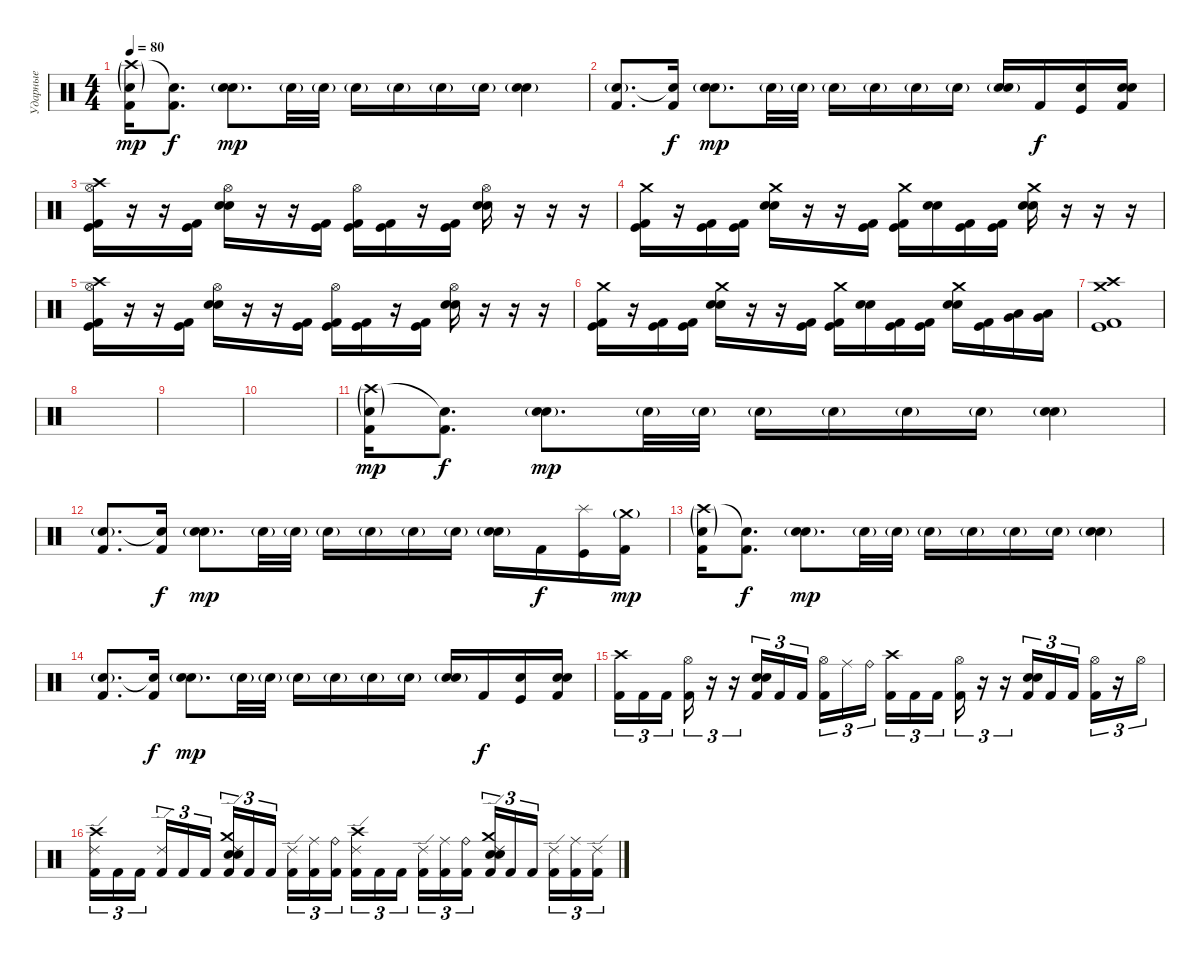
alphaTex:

\track ("Ударные" "Ударные") {instrument percussion}
\staff {score}
\articulation defaults
\ts (4 4)
\tempo 80
\clef neutral
\ks c
("Crash high (hit)"{g} "Snare (hit)"{g} "Kick (hit) 2").16{dy mp} ("Snare (hit)"{t} "Kick (hit) 2").8{d dy f} ("Snare (hit)"{g} "Electric Snare (hit)"{g}).8{d dy mp} "Snare (hit) 2"{g}.32 "Snare (hit) 2"{g}.32 "Electric Snare (hit)"{g}.16 "Snare (hit) 2"{g}.16 "Electric Snare (hit)"{g}.16 "Electric Snare (hit)"{g}.16 ("Snare (hit)"{g} "Electric Snare (hit)"{g}).4 |
("Snare (hit)"{g} "Kick (hit) 2").8{d} ("Snare (hit)"{t} "Kick (hit) 2").16{dy f} ("Snare (hit)"{g} "Electric Snare (hit)"{g}).8{d dy mp} "Snare (hit) 2"{g}.32 "Snare (hit) 2"{g}.32 "Electric Snare (hit)"{g}.16 "Snare (hit) 2"{g}.16 "Electric Snare (hit)"{g}.16 "Electric Snare (hit)"{g}.16 ("Snare (hit)"{g} "Electric Snare (hit)"{g}).16 "Kick (hit) 2".16{dy f} ("Electric Snare (hit)" "Kick (hit)").16 ("Snare (hit)" "Electric Snare (hit)" "Kick (hit) 2").16 |
("Hi-Hat (open)" "Crash high (hit)" "Kick (hit) 2" "Kick (hit)").16 r.16 r.16 ("Kick (hit) 2" "Kick (hit)").16 ("Hi-Hat (open)" "Electric Snare (hit)" "Snare (hit)").16 r.16 r.16 ("Kick (hit) 2" "Kick (hit)").16 ("Hi-Hat (open)" "Kick (hit) 2" "Kick (hit)").16 ("Kick (hit) 2" "Kick (hit)").16 r.16 ("Kick (hit) 2" "Kick (hit)").16 ("Hi-Hat (open)" "Electric Snare (hit)" "Snare (hit)").16 r.16 r.16 r.16 |
("Crash medium (hit)" "Kick (hit) 2" "Kick (hit)").16 r.16 ("Kick (hit) 2" "Kick (hit)").16 ("Kick (hit) 2" "Kick (hit)").16 ("Crash medium (hit)" "Electric Snare (hit)" "Snare (hit)").16 r.16 r.16 ("Kick (hit) 2" "Kick (hit)").16 ("Crash medium (hit)" "Kick (hit) 2" "Kick (hit)").16 ("Electric Snare (hit)" "Snare (hit)").16 ("Kick (hit) 2" "Kick (hit)").16 ("Kick (hit) 2" "Kick (hit)").16 ("Crash medium (hit)" "Electric Snare (hit)" "Snare (hit)").16 r.16 r.16 r.16 |
("Hi-Hat (open)" "Crash high (hit)" "Kick (hit) 2" "Kick (hit)").16 r.16 r.16 ("Kick (hit) 2" "Kick (hit)").16 ("Hi-Hat (open)" "Electric Snare (hit)" "Snare (hit)").16 r.16 r.16 ("Kick (hit) 2" "Kick (hit)").16 ("Hi-Hat (open)" "Kick (hit) 2" "Kick (hit)").16 ("Kick (hit) 2" "Kick (hit)").16 r.16 ("Kick (hit) 2" "Kick (hit)").16 ("Hi-Hat (open)" "Electric Snare (hit)" "Snare (hit)").16 r.16 r.16 r.16 |
("Crash medium (hit)" "Kick (hit) 2" "Kick (hit)").16 r.16 ("Kick (hit) 2" "Kick (hit)").16 ("Kick (hit) 2" "Kick (hit)").16 ("Crash medium (hit)" "Electric Snare (hit)" "Snare (hit)").16 r.16 r.16 ("Kick (hit) 2" "Kick (hit)").16 ("Crash medium (hit)" "Kick (hit) 2" "Kick (hit)").16 ("Electric Snare (hit)" "Snare (hit)").16 ("Kick (hit) 2" "Kick (hit)").16 ("Kick (hit) 2" "Kick (hit)").16 ("Crash medium (hit)" "Electric Snare (hit)" "Snare (hit)").16 ("Kick (hit) 2" "Kick (hit)").16 ("Low Tom (hit)" "Very Low Tom (hit)").16 ("Very Low Tom (hit)" "Low Floor Tom (hit)").16 |
("Crash high (hit)" "Crash medium (hit)" "Kick (hit) 2" "Kick (hit)").1 |
|
|
|
("Crash high (hit)"{g} "Snare (hit)"{g} "Kick (hit) 2").16{dy mp} ("Snare (hit)"{t} "Kick (hit) 2").8{d dy f} ("Snare (hit)"{g} "Electric Snare (hit)"{g}).8{d dy mp} "Snare (hit) 2"{g}.32 "Snare (hit) 2"{g}.32 "Electric Snare (hit)"{g}.16 "Snare (hit) 2"{g}.16 "Electric Snare (hit)"{g}.16 "Electric Snare (hit)"{g}.16 ("Snare (hit)"{g} "Electric Snare (hit)"{g}).4 |
("Snare (hit)"{g} "Kick (hit) 2").8{d} ("Snare (hit)"{t} "Kick (hit) 2").16{dy f} ("Snare (hit)"{g} "Electric Snare (hit)"{g}).8{d dy mp} "Snare (hit) 2"{g}.32 "Snare (hit) 2"{g}.32 "Electric Snare (hit)"{g}.16 "Snare (hit) 2"{g}.16 "Electric Snare (hit)"{g}.16 "Electric Snare (hit)"{g}.16 ("Snare (hit)"{g} "Electric Snare (hit)"{g}).16 "Kick (hit) 2".16{dy f} ("Splash (hit)" "Kick (hit)").16 ("Crash medium (hit)"{g} "Kick (hit) 2").16{dy mp} |
("Crash high (hit)"{g} "Snare (hit)"{g} "Kick (hit) 2").16 ("Snare (hit)"{t} "Kick (hit) 2").8{d dy f} ("Snare (hit)"{g} "Electric Snare (hit)"{g}).8{d dy mp} "Snare (hit) 2"{g}.32 "Snare (hit) 2"{g}.32 "Electric Snare (hit)"{g}.16 "Snare (hit) 2"{g}.16 "Electric Snare (hit)"{g}.16 "Electric Snare (hit)"{g}.16 ("Snare (hit)"{g} "Electric Snare (hit)"{g}).4 |
("Snare (hit)"{g} "Kick (hit) 2").8{d} ("Snare (hit)"{t} "Kick (hit) 2").16{dy f} ("Snare (hit)"{g} "Electric Snare (hit)"{g}).8{d dy mp} "Snare (hit) 2"{g}.32 "Snare (hit) 2"{g}.32 "Electric Snare (hit)"{g}.16 "Snare (hit) 2"{g}.16 "Electric Snare (hit)"{g}.16 "Electric Snare (hit)"{g}.16 ("Snare (hit)"{g} "Electric Snare (hit)"{g}).16 "Kick (hit) 2".16{dy f} ("Electric Snare (hit)" "Kick (hit)").16 ("Snare (hit)" "Electric Snare (hit)" "Kick (hit) 2").16 |
("Crash high (hit)" "Kick (hit) 2").16{tu (3 2)} "Kick (hit) 2".16{tu (3 2)} "Kick (hit) 2".16{tu (3 2)} ("Hi-Hat (open)" "Kick (hit) 2").16{tu (3 2)} r.16{tu (3 2)} r.16{tu (3 2)} ("Snare (hit)" "Electric Snare (hit)" "Kick (hit) 2").16{tu (3 2)} "Kick (hit) 2".16{tu (3 2)} "Kick (hit) 2".16{tu (3 2)} ("Hi-Hat (open)" "Kick (hit) 2").16{tu (3 2)} "Ride (middle)".16{tu (3 2)} "Ride (bell)".16{tu (3 2)} ("Crash high (hit)" "Kick (hit) 2").16{tu (3 2)} "Kick (hit) 2".16{tu (3 2)} "Kick (hit) 2".16{tu (3 2)} ("Hi-Hat (open)" "Kick (hit) 2").16{tu (3 2)} r.16{tu (3 2)} r.16{tu (3 2)} ("Snare (hit)" "Electric Snare (hit)" "Kick (hit) 2").16{tu (3 2)} "Kick (hit) 2".16{tu (3 2)} "Kick (hit) 2".16{tu (3 2)} ("Hi-Hat (open)" "Kick (hit) 2").16{tu (3 2)} r.16{tu (3 2)} "Hi-Hat (open)".16{tu (3 2)} |
("Ride (edge) 2" "Crash high (hit)" "Kick (hit) 2").16{tu (3 2)} "Kick (hit) 2".16{tu (3 2)} "Kick (hit) 2".16{tu (3 2)} ("Ride (edge) 2" "Kick (hit) 2").16{tu (3 2)} "Kick (hit) 2".16{tu (3 2)} "Kick (hit) 2".16{tu (3 2)} ("Crash medium (hit)" "Ride (edge) 2" "Snare (hit)" "Electric Snare (hit)" "Kick (hit) 2").16{tu (3 2)} "Kick (hit) 2".16{tu (3 2)} "Kick (hit) 2".16{tu (3 2)} ("Ride (edge) 2" "Kick (hit) 2").16{tu (3 2)} ("Ride (middle)" "Kick (hit) 2").16{tu (3 2)} ("Ride (bell)" "Kick (hit) 2").16{tu (3 2)} ("Ride (edge) 2" "Crash high (hit)" "Kick (hit) 2").16{tu (3 2)} "Kick (hit) 2".16{tu (3 2)} "Kick (hit) 2".16{tu (3 2)} ("Ride (edge) 2" "Kick (hit) 2").16{tu (3 2)} ("Ride (middle)" "Kick (hit) 2").16{tu (3 2)} ("Ride (bell)" "Kick (hit) 2").16{tu (3 2)} ("Crash medium (hit)" "Ride (edge) 2" "Snare (hit)" "Electric Snare (hit)" "Kick (hit) 2").16{tu (3 2)} "Kick (hit) 2".16{tu (3 2)} "Kick (hit) 2".16{tu (3 2)} ("Ride (edge) 2" "Kick (hit) 2").16{tu (3 2)} ("Ride (middle)" "Kick (hit) 2").16{tu (3 2)} ("Ride (edge) 2" "Kick (hit) 2").16{tu (3 2)}
